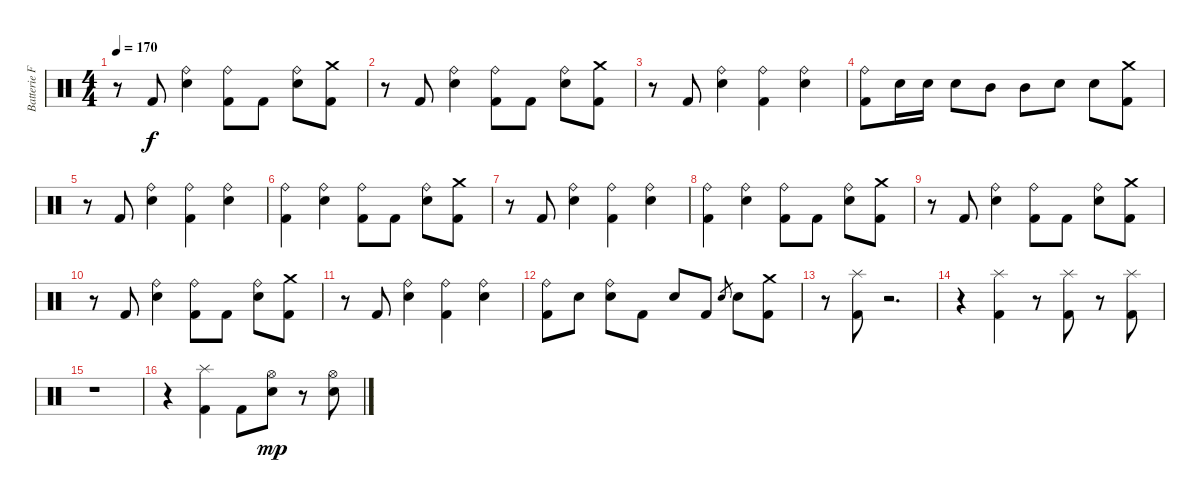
\track ("Batterie Franck" "Batterie F") {instrument percussion}
\staff {score}
\articulation defaults
\ts (4 4)
\tempo 170
\clef neutral
\ks c
r.8{dy f} "Kick (hit) 2".8 ("Ride (bell)" "Snare (hit) 2").4 ("Ride (bell)" "Kick (hit) 2").8 "Kick (hit) 2".8 ("Ride (bell)" "Snare (hit) 2").8 ("Crash medium (hit)" "Kick (hit) 2").8 |
r.8 "Kick (hit) 2".8 ("Ride (bell)" "Snare (hit) 2").4 ("Ride (bell)" "Kick (hit) 2").8 "Kick (hit) 2".8 ("Ride (bell)" "Snare (hit) 2").8 ("Crash medium (hit)" "Kick (hit) 2").8 |
r.8 "Kick (hit) 2".8 ("Ride (bell)" "Snare (hit) 2").4 ("Ride (bell)" "Kick (hit) 2").4 ("Ride (bell)" "Snare (hit) 2").4 |
("Ride (bell)" "Kick (hit) 2").8 "Snare (hit) 2".16 "Snare (hit) 2".16 "Snare (hit) 2".8 "Mid Tom (hit)".8 "Mid Tom (hit)".8 "Snare (hit) 2".8 "Snare (hit) 2".8 ("Crash medium (hit)" "Kick (hit) 2").8 |
r.8 "Kick (hit) 2".8 ("Ride (bell)" "Snare (hit) 2").4 ("Ride (bell)" "Kick (hit) 2").4 ("Ride (bell)" "Snare (hit) 2").4 |
("Ride (bell)" "Kick (hit) 2").4 ("Ride (bell)" "Snare (hit) 2").4 ("Ride (bell)" "Kick (hit) 2").8 "Kick (hit) 2".8 ("Ride (bell)" "Snare (hit) 2").8 ("Crash medium (hit)" "Kick (hit) 2").8 |
r.8 "Kick (hit) 2".8 ("Ride (bell)" "Snare (hit) 2").4 ("Ride (bell)" "Kick (hit) 2").4 ("Ride (bell)" "Snare (hit) 2").4 |
("Ride (bell)" "Kick (hit) 2").4 ("Ride (bell)" "Snare (hit) 2").4 ("Ride (bell)" "Kick (hit) 2").8 "Kick (hit) 2".8 ("Ride (bell)" "Snare (hit) 2").8 ("Crash medium (hit)" "Kick (hit) 2").8 |
r.8 "Kick (hit) 2".8 ("Ride (bell)" "Snare (hit) 2").4 ("Ride (bell)" "Kick (hit) 2").8 "Kick (hit) 2".8 ("Ride (bell)" "Snare (hit) 2").8 ("Crash medium (hit)" "Kick (hit) 2").8 |
r.8 "Kick (hit) 2".8 ("Ride (bell)" "Snare (hit) 2").4 ("Ride (bell)" "Kick (hit) 2").8 "Kick (hit) 2".8 ("Ride (bell)" "Snare (hit) 2").8 ("Crash medium (hit)" "Kick (hit) 2").8 |
r.8 "Kick (hit) 2".8 ("Ride (bell)" "Snare (hit) 2").4 ("Ride (bell)" "Kick (hit) 2").4 ("Ride (bell)" "Snare (hit) 2").4 |
("Ride (bell)" "Kick (hit) 2").8 "Snare (hit) 2".8 ("Ride (bell)" "Snare (hit) 2").8 "Kick (hit) 2".8 "Snare (hit) 2".8 "Kick (hit) 2".8 "Snare (hit) 2".8{gr} "Snare (hit) 2".8 ("Crash medium (hit)" "Kick (hit) 2").8 |
r.8 ("Splash (hit)" "Kick (hit) 2").8 r.2{d} |
r.4 ("Splash (hit)" "Kick (hit) 2").4 r.8 ("Splash (hit)" "Kick (hit) 2").8 r.8 ("Splash (hit)" "Kick (hit) 2").8 |
r.1 |
r.4 ("Splash (hit)" "Kick (hit) 2").4 "Kick (hit) 2".8 ("Hi-Hat (open)" "Snare (hit) 2").8{dy mp} r.8 ("Hi-Hat (open)" "Snare (hit) 2").8
